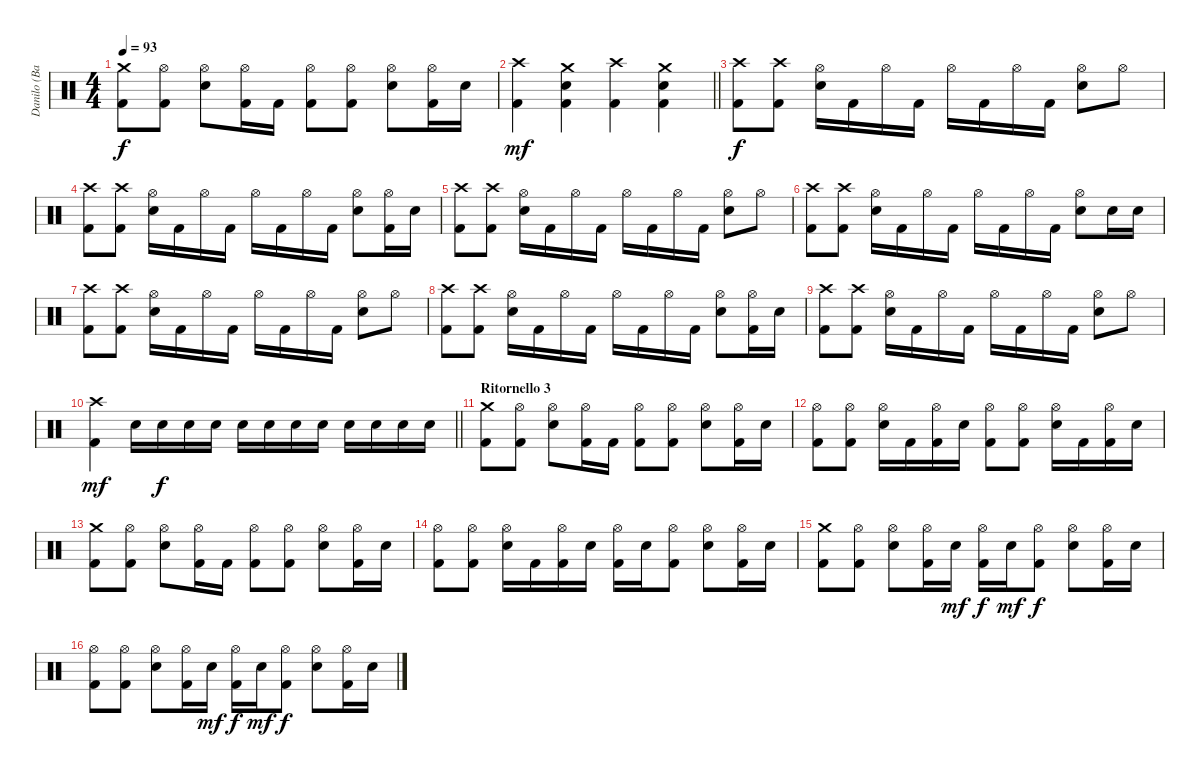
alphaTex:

\track ("Danilo (Batteria)" "Danilo (Ba") {instrument percussion}
\staff {score}
\articulation defaults
\ts (4 4)
\tempo 93
\clef neutral
\ks c
("Crash medium (hit)" "Kick (hit) 2").8{dy f} ("Hi-Hat (open)" "Kick (hit) 2").8 ("Hi-Hat (open)" "Electric Snare (hit)").8 ("Hi-Hat (open)" "Kick (hit) 2").16 "Kick (hit) 2".16 ("Hi-Hat (open)" "Kick (hit) 2").8 ("Hi-Hat (open)" "Kick (hit) 2").8 ("Hi-Hat (open)" "Electric Snare (hit)").8 ("Hi-Hat (open)" "Kick (hit) 2").16 "Electric Snare (hit)".16 |
\barLineRight lightlight
("Crash high (hit)" "Kick (hit) 2").4{dy mf} ("Crash medium (hit)" "Electric Snare (hit)" "Kick (hit) 2").4 ("Crash high (hit)" "Kick (hit) 2").4 ("Crash medium (hit)" "Electric Snare (hit)" "Kick (hit) 2").4 |
("Crash high (hit)" "Kick (hit) 2").8{dy f} ("Crash high (hit)" "Kick (hit) 2").8 ("Hi-Hat (open)" "Electric Snare (hit)").16 "Kick (hit) 2".16 "Hi-Hat (open)".16 "Kick (hit) 2".16 "Hi-Hat (open)".16 "Kick (hit) 2".16 "Hi-Hat (open)".16 "Kick (hit) 2".16 ("Hi-Hat (open)" "Electric Snare (hit)").8 "Hi-Hat (open)".8 |
("Crash high (hit)" "Kick (hit) 2").8 ("Crash high (hit)" "Kick (hit) 2").8 ("Hi-Hat (open)" "Electric Snare (hit)").16 "Kick (hit) 2".16 "Hi-Hat (open)".16 "Kick (hit) 2".16 "Hi-Hat (open)".16 "Kick (hit) 2".16 "Hi-Hat (open)".16 "Kick (hit) 2".16 ("Hi-Hat (open)" "Electric Snare (hit)").8 ("Hi-Hat (open)" "Kick (hit) 2").16 "Electric Snare (hit)".16 |
("Crash high (hit)" "Kick (hit) 2").8 ("Crash high (hit)" "Kick (hit) 2").8 ("Hi-Hat (open)" "Electric Snare (hit)").16 "Kick (hit) 2".16 "Hi-Hat (open)".16 "Kick (hit) 2".16 "Hi-Hat (open)".16 "Kick (hit) 2".16 "Hi-Hat (open)".16 "Kick (hit) 2".16 ("Hi-Hat (open)" "Electric Snare (hit)").8 "Hi-Hat (open)".8 |
("Crash high (hit)" "Kick (hit) 2").8 ("Crash high (hit)" "Kick (hit) 2").8 ("Hi-Hat (open)" "Electric Snare (hit)").16 "Kick (hit) 2".16 "Hi-Hat (open)".16 "Kick (hit) 2".16 "Hi-Hat (open)".16 "Kick (hit) 2".16 "Hi-Hat (open)".16 "Kick (hit) 2".16 ("Hi-Hat (open)" "Electric Snare (hit)").8 "Electric Snare (hit)".16 "Electric Snare (hit)".16 |
("Crash high (hit)" "Kick (hit) 2").8 ("Crash high (hit)" "Kick (hit) 2").8 ("Hi-Hat (open)" "Electric Snare (hit)").16 "Kick (hit) 2".16 "Hi-Hat (open)".16 "Kick (hit) 2".16 "Hi-Hat (open)".16 "Kick (hit) 2".16 "Hi-Hat (open)".16 "Kick (hit) 2".16 ("Hi-Hat (open)" "Electric Snare (hit)").8 "Hi-Hat (open)".8 |
("Crash high (hit)" "Kick (hit) 2").8 ("Crash high (hit)" "Kick (hit) 2").8 ("Hi-Hat (open)" "Electric Snare (hit)").16 "Kick (hit) 2".16 "Hi-Hat (open)".16 "Kick (hit) 2".16 "Hi-Hat (open)".16 "Kick (hit) 2".16 "Hi-Hat (open)".16 "Kick (hit) 2".16 ("Hi-Hat (open)" "Electric Snare (hit)").8 ("Hi-Hat (open)" "Kick (hit) 2").16 "Electric Snare (hit)".16 |
("Crash high (hit)" "Kick (hit) 2").8 ("Crash high (hit)" "Kick (hit) 2").8 ("Hi-Hat (open)" "Electric Snare (hit)").16 "Kick (hit) 2".16 "Hi-Hat (open)".16 "Kick (hit) 2".16 "Hi-Hat (open)".16 "Kick (hit) 2".16 "Hi-Hat (open)".16 "Kick (hit) 2".16 ("Hi-Hat (open)" "Electric Snare (hit)").8 "Hi-Hat (open)".8 |
\barLineRight lightlight
("Crash high (hit)" "Kick (hit) 2").4{dy mf} "Electric Snare (hit)".16 "Electric Snare (hit)".16{dy f} "Electric Snare (hit)".16 "Electric Snare (hit)".16 "Electric Snare (hit)".16 "Electric Snare (hit)".16 "Electric Snare (hit)".16 "Electric Snare (hit)".16 "Electric Snare (hit)".16 "Electric Snare (hit)".16 "Electric Snare (hit)".16 "Electric Snare (hit)".16 |
\section ("" "Ritornello 3")
("Crash medium (hit)" "Kick (hit) 2").8 ("Hi-Hat (open)" "Kick (hit) 2").8 ("Hi-Hat (open)" "Electric Snare (hit)").8 ("Hi-Hat (open)" "Kick (hit) 2").16 "Kick (hit) 2".16 ("Hi-Hat (open)" "Kick (hit) 2").8 ("Hi-Hat (open)" "Kick (hit) 2").8 ("Hi-Hat (open)" "Electric Snare (hit)").8 ("Hi-Hat (open)" "Kick (hit) 2").16 "Electric Snare (hit)".16 |
("Hi-Hat (open)" "Kick (hit) 2").8 ("Hi-Hat (open)" "Kick (hit) 2").8 ("Hi-Hat (open)" "Electric Snare (hit)").16 "Kick (hit) 2".16 ("Hi-Hat (open)" "Kick (hit) 2").16 "Electric Snare (hit)".16 ("Hi-Hat (open)" "Kick (hit) 2").8 ("Hi-Hat (open)" "Kick (hit) 2").8 ("Hi-Hat (open)" "Electric Snare (hit)").16 "Kick (hit) 2".16 ("Hi-Hat (open)" "Kick (hit) 2").16 "Electric Snare (hit)".16 |
("Crash medium (hit)" "Kick (hit) 2").8 ("Hi-Hat (open)" "Kick (hit) 2").8 ("Hi-Hat (open)" "Electric Snare (hit)").8 ("Hi-Hat (open)" "Kick (hit) 2").16 "Kick (hit) 2".16 ("Hi-Hat (open)" "Kick (hit) 2").8 ("Hi-Hat (open)" "Kick (hit) 2").8 ("Hi-Hat (open)" "Electric Snare (hit)").8 ("Hi-Hat (open)" "Kick (hit) 2").16 "Electric Snare (hit)".16 |
("Hi-Hat (open)" "Kick (hit) 2").8 ("Hi-Hat (open)" "Kick (hit) 2").8 ("Hi-Hat (open)" "Electric Snare (hit)").16 "Kick (hit) 2".16 ("Hi-Hat (open)" "Kick (hit) 2").16 "Electric Snare (hit)".16 ("Hi-Hat (open)" "Kick (hit) 2").16 "Electric Snare (hit)".16 ("Hi-Hat (open)" "Kick (hit) 2").8 ("Hi-Hat (open)" "Electric Snare (hit)").8 ("Hi-Hat (open)" "Kick (hit) 2").16 "Electric Snare (hit)".16 |
("Crash medium (hit)" "Kick (hit) 2").8 ("Hi-Hat (open)" "Kick (hit) 2").8 ("Hi-Hat (open)" "Electric Snare (hit)").8 ("Hi-Hat (open)" "Kick (hit) 2").16 "Electric Snare (hit)".16{dy mf} ("Hi-Hat (open)" "Kick (hit) 2").16{dy f} "Electric Snare (hit)".16{dy mf} ("Hi-Hat (open)" "Kick (hit) 2").8{dy f} ("Hi-Hat (open)" "Electric Snare (hit)").8 ("Hi-Hat (open)" "Kick (hit) 2").16 "Electric Snare (hit)".16 |
("Hi-Hat (open)" "Kick (hit) 2").8 ("Hi-Hat (open)" "Kick (hit) 2").8 ("Hi-Hat (open)" "Electric Snare (hit)").8 ("Hi-Hat (open)" "Kick (hit) 2").16 "Electric Snare (hit)".16{dy mf} ("Hi-Hat (open)" "Kick (hit) 2").16{dy f} "Electric Snare (hit)".16{dy mf} ("Hi-Hat (open)" "Kick (hit) 2").8{dy f} ("Hi-Hat (open)" "Electric Snare (hit)").8 ("Hi-Hat (open)" "Kick (hit) 2").16 "Electric Snare (hit)".16
